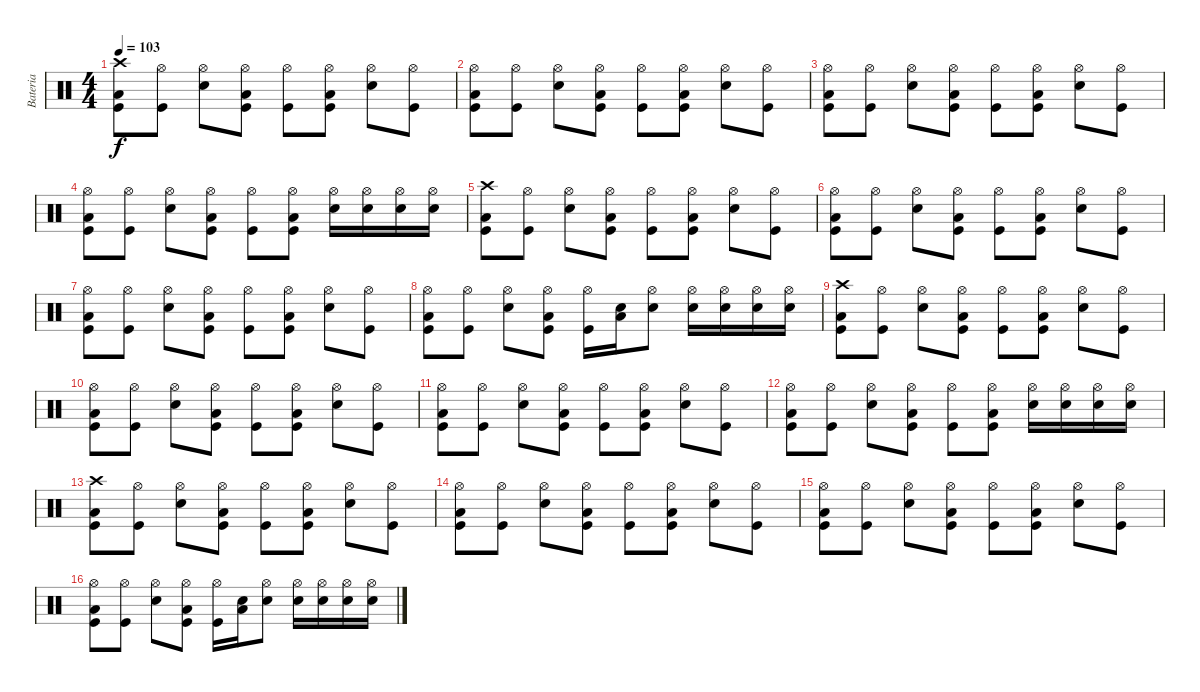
\track ("Bateria" "Bateria") {instrument percussion}
\staff {score}
\articulation defaults
\ts (4 4)
\tempo 103
\clef neutral
\ks c
("Crash high (hit)" "Kick (hit)" "Low Tom (hit)").8{dy f} ("Hi-Hat (open)" "Kick (hit)").8 ("Hi-Hat (open)" "Snare (hit) 2").8 ("Hi-Hat (open)" "Kick (hit)" "Low Tom (hit)").8 ("Hi-Hat (open)" "Kick (hit)").8 ("Hi-Hat (open)" "Kick (hit)" "Low Tom (hit)").8 ("Hi-Hat (open)" "Snare (hit) 2").8 ("Hi-Hat (open)" "Kick (hit)").8 |
("Hi-Hat (open)" "Kick (hit)" "Low Tom (hit)").8 ("Hi-Hat (open)" "Kick (hit)").8 ("Hi-Hat (open)" "Snare (hit) 2").8 ("Hi-Hat (open)" "Kick (hit)" "Low Tom (hit)").8 ("Hi-Hat (open)" "Kick (hit)").8 ("Hi-Hat (open)" "Kick (hit)" "Low Tom (hit)").8 ("Hi-Hat (open)" "Snare (hit) 2").8 ("Hi-Hat (open)" "Kick (hit)").8 |
("Hi-Hat (open)" "Kick (hit)" "Low Tom (hit)").8 ("Hi-Hat (open)" "Kick (hit)").8 ("Hi-Hat (open)" "Snare (hit) 2").8 ("Hi-Hat (open)" "Kick (hit)" "Low Tom (hit)").8 ("Hi-Hat (open)" "Kick (hit)").8 ("Hi-Hat (open)" "Kick (hit)" "Low Tom (hit)").8 ("Hi-Hat (open)" "Snare (hit) 2").8 ("Hi-Hat (open)" "Kick (hit)").8 |
("Hi-Hat (open)" "Kick (hit)" "Low Tom (hit)").8 ("Hi-Hat (open)" "Kick (hit)").8 ("Hi-Hat (open)" "Snare (hit) 2").8 ("Hi-Hat (open)" "Kick (hit)" "Low Tom (hit)").8 ("Hi-Hat (open)" "Kick (hit)").8 ("Hi-Hat (open)" "Kick (hit)" "Low Tom (hit)").8 ("Hi-Hat (open)" "Snare (hit) 2").16 ("Hi-Hat (open)" "Snare (hit) 2").16 ("Hi-Hat (open)" "Snare (hit) 2").16 ("Hi-Hat (open)" "Snare (hit) 2").16 |
("Crash high (hit)" "Kick (hit)" "Low Tom (hit)").8 ("Hi-Hat (open)" "Kick (hit)").8 ("Hi-Hat (open)" "Snare (hit) 2").8 ("Hi-Hat (open)" "Kick (hit)" "Low Tom (hit)").8 ("Hi-Hat (open)" "Kick (hit)").8 ("Hi-Hat (open)" "Kick (hit)" "Low Tom (hit)").8 ("Hi-Hat (open)" "Snare (hit) 2").8 ("Hi-Hat (open)" "Kick (hit)").8 |
("Hi-Hat (open)" "Kick (hit)" "Low Tom (hit)").8 ("Hi-Hat (open)" "Kick (hit)").8 ("Hi-Hat (open)" "Snare (hit) 2").8 ("Hi-Hat (open)" "Kick (hit)" "Low Tom (hit)").8 ("Hi-Hat (open)" "Kick (hit)").8 ("Hi-Hat (open)" "Kick (hit)" "Low Tom (hit)").8 ("Hi-Hat (open)" "Snare (hit) 2").8 ("Hi-Hat (open)" "Kick (hit)").8 |
("Hi-Hat (open)" "Kick (hit)" "Low Tom (hit)").8 ("Hi-Hat (open)" "Kick (hit)").8 ("Hi-Hat (open)" "Snare (hit) 2").8 ("Hi-Hat (open)" "Kick (hit)" "Low Tom (hit)").8 ("Hi-Hat (open)" "Kick (hit)").8 ("Hi-Hat (open)" "Kick (hit)" "Low Tom (hit)").8 ("Hi-Hat (open)" "Snare (hit) 2").8 ("Hi-Hat (open)" "Kick (hit)").8 |
("Hi-Hat (open)" "Kick (hit)" "Low Tom (hit)").8 ("Hi-Hat (open)" "Kick (hit)").8 ("Hi-Hat (open)" "Snare (hit) 2").8 ("Hi-Hat (open)" "Kick (hit)" "Low Tom (hit)").8 ("Hi-Hat (open)" "Kick (hit)").16 ("Snare (hit) 2" "Low Tom (hit)").16 ("Hi-Hat (open)" "Snare (hit) 2").8 ("Hi-Hat (open)" "Snare (hit) 2").16 ("Hi-Hat (open)" "Snare (hit) 2").16 ("Hi-Hat (open)" "Snare (hit) 2").16 ("Hi-Hat (open)" "Snare (hit) 2").16 |
("Crash high (hit)" "Kick (hit)" "Low Tom (hit)").8 ("Hi-Hat (open)" "Kick (hit)").8 ("Hi-Hat (open)" "Snare (hit) 2").8 ("Hi-Hat (open)" "Kick (hit)" "Low Tom (hit)").8 ("Hi-Hat (open)" "Kick (hit)").8 ("Hi-Hat (open)" "Kick (hit)" "Low Tom (hit)").8 ("Hi-Hat (open)" "Snare (hit) 2").8 ("Hi-Hat (open)" "Kick (hit)").8 |
("Hi-Hat (open)" "Kick (hit)" "Low Tom (hit)").8 ("Hi-Hat (open)" "Kick (hit)").8 ("Hi-Hat (open)" "Snare (hit) 2").8 ("Hi-Hat (open)" "Kick (hit)" "Low Tom (hit)").8 ("Hi-Hat (open)" "Kick (hit)").8 ("Hi-Hat (open)" "Kick (hit)" "Low Tom (hit)").8 ("Hi-Hat (open)" "Snare (hit) 2").8 ("Hi-Hat (open)" "Kick (hit)").8 |
("Hi-Hat (open)" "Kick (hit)" "Low Tom (hit)").8 ("Hi-Hat (open)" "Kick (hit)").8 ("Hi-Hat (open)" "Snare (hit) 2").8 ("Hi-Hat (open)" "Kick (hit)" "Low Tom (hit)").8 ("Hi-Hat (open)" "Kick (hit)").8 ("Hi-Hat (open)" "Kick (hit)" "Low Tom (hit)").8 ("Hi-Hat (open)" "Snare (hit) 2").8 ("Hi-Hat (open)" "Kick (hit)").8 |
("Hi-Hat (open)" "Kick (hit)" "Low Tom (hit)").8 ("Hi-Hat (open)" "Kick (hit)").8 ("Hi-Hat (open)" "Snare (hit) 2").8 ("Hi-Hat (open)" "Kick (hit)" "Low Tom (hit)").8 ("Hi-Hat (open)" "Kick (hit)").8 ("Hi-Hat (open)" "Kick (hit)" "Low Tom (hit)").8 ("Hi-Hat (open)" "Snare (hit) 2").16 ("Hi-Hat (open)" "Snare (hit) 2").16 ("Hi-Hat (open)" "Snare (hit) 2").16 ("Hi-Hat (open)" "Snare (hit) 2").16 |
("Crash high (hit)" "Kick (hit)" "Low Tom (hit)").8 ("Hi-Hat (open)" "Kick (hit)").8 ("Hi-Hat (open)" "Snare (hit) 2").8 ("Hi-Hat (open)" "Kick (hit)" "Low Tom (hit)").8 ("Hi-Hat (open)" "Kick (hit)").8 ("Hi-Hat (open)" "Kick (hit)" "Low Tom (hit)").8 ("Hi-Hat (open)" "Snare (hit) 2").8 ("Hi-Hat (open)" "Kick (hit)").8 |
("Hi-Hat (open)" "Kick (hit)" "Low Tom (hit)").8 ("Hi-Hat (open)" "Kick (hit)").8 ("Hi-Hat (open)" "Snare (hit) 2").8 ("Hi-Hat (open)" "Kick (hit)" "Low Tom (hit)").8 ("Hi-Hat (open)" "Kick (hit)").8 ("Hi-Hat (open)" "Kick (hit)" "Low Tom (hit)").8 ("Hi-Hat (open)" "Snare (hit) 2").8 ("Hi-Hat (open)" "Kick (hit)").8 |
("Hi-Hat (open)" "Kick (hit)" "Low Tom (hit)").8 ("Hi-Hat (open)" "Kick (hit)").8 ("Hi-Hat (open)" "Snare (hit) 2").8 ("Hi-Hat (open)" "Kick (hit)" "Low Tom (hit)").8 ("Hi-Hat (open)" "Kick (hit)").8 ("Hi-Hat (open)" "Kick (hit)" "Low Tom (hit)").8 ("Hi-Hat (open)" "Snare (hit) 2").8 ("Hi-Hat (open)" "Kick (hit)").8 |
("Hi-Hat (open)" "Kick (hit)" "Low Tom (hit)").8 ("Hi-Hat (open)" "Kick (hit)").8 ("Hi-Hat (open)" "Snare (hit) 2").8 ("Hi-Hat (open)" "Kick (hit)" "Low Tom (hit)").8 ("Hi-Hat (open)" "Kick (hit)").16 ("Snare (hit) 2" "Low Tom (hit)").16 ("Hi-Hat (open)" "Snare (hit) 2").8 ("Hi-Hat (open)" "Snare (hit) 2").16 ("Hi-Hat (open)" "Snare (hit) 2").16 ("Hi-Hat (open)" "Snare (hit) 2").16 ("Hi-Hat (open)" "Snare (hit) 2").16
